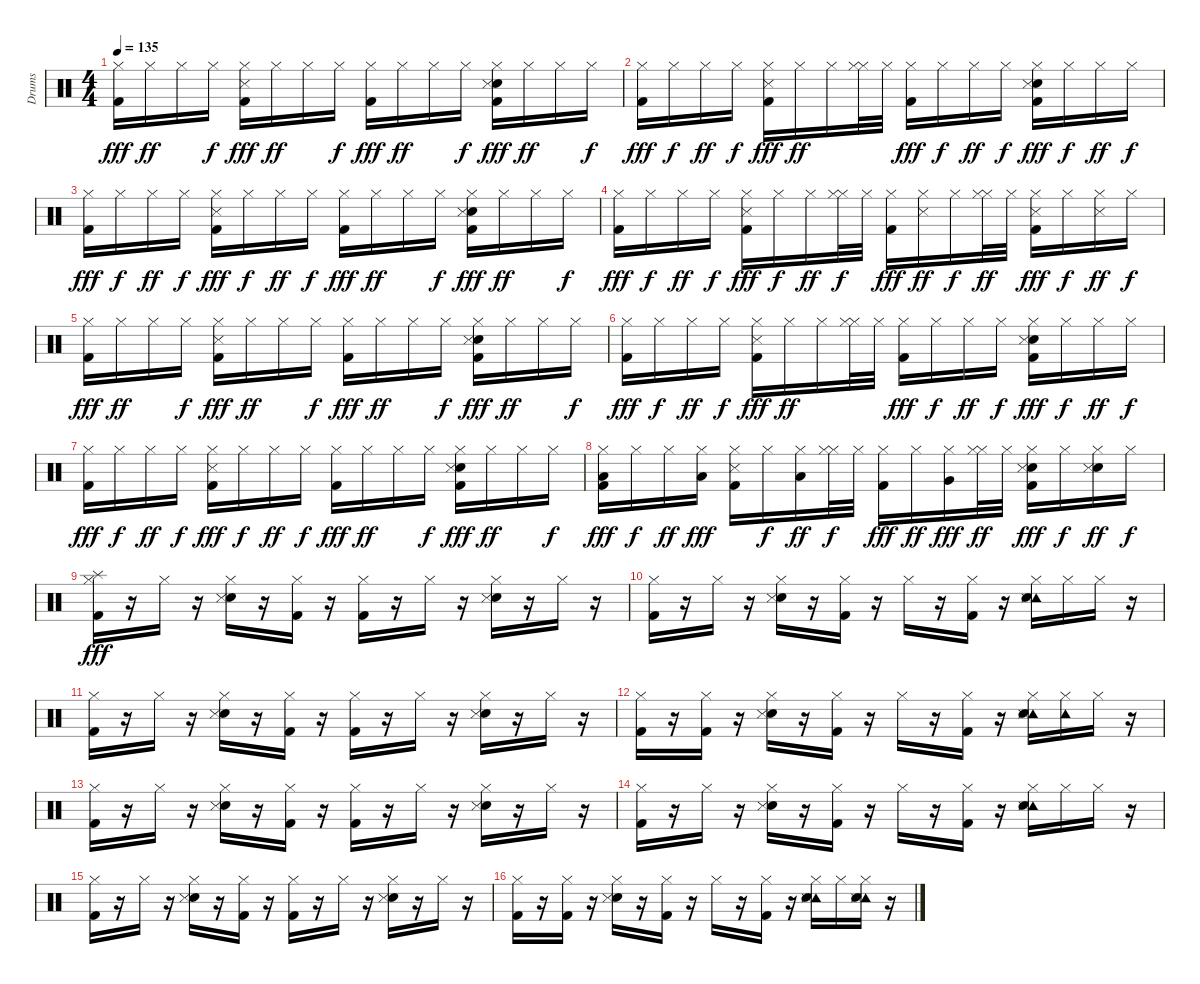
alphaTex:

\track ("Drums" "Drums") {instrument percussion}
\staff {score}
\articulation defaults
\ts (4 4)
\tempo 135
\clef neutral
\ks c
("Kick (hit) 2" "Hi-Hat (closed)").16{dy fff} "Hi-Hat (closed)".16{dy ff} "Hi-Hat (closed)".16 "Hi-Hat (closed)".16{dy f} ("Snare (side stick) 3" "Kick (hit) 2" "Hi-Hat (closed)").16{dy fff} "Hi-Hat (closed)".16{dy ff} "Hi-Hat (closed)".16 "Hi-Hat (closed)".16{dy f} ("Kick (hit) 2" "Hi-Hat (closed)").16{dy fff} "Hi-Hat (closed)".16{dy ff} "Hi-Hat (closed)".16 "Hi-Hat (closed)".16{dy f} ("Electric Snare (hit)" "Snare (side stick) 3" "Kick (hit) 2" "Hi-Hat (closed)").16{dy fff} "Hi-Hat (closed)".16{dy ff} "Hi-Hat (closed)".16 "Hi-Hat (closed)".16{dy f} |
("Kick (hit) 2" "Hi-Hat (closed)").16{dy fff} "Hi-Hat (closed)".16{dy f} "Hi-Hat (closed)".16{dy ff} "Hi-Hat (closed)".16{dy f} ("Snare (side stick) 3" "Kick (hit) 2" "Hi-Hat (closed)").16{dy fff} "Hi-Hat (closed)".16{dy ff} "Hi-Hat (closed)".16 ("Hi-Hat (closed)" "Hi-Hat (closed)").32 "Hi-Hat (closed)".32 ("Kick (hit) 2" "Hi-Hat (closed)").16{dy fff} "Hi-Hat (closed)".16{dy f} "Hi-Hat (closed)".16{dy ff} "Hi-Hat (closed)".16{dy f} ("Electric Snare (hit)" "Snare (side stick) 3" "Kick (hit) 2" "Hi-Hat (closed)").16{dy fff} "Hi-Hat (closed)".16{dy f} "Hi-Hat (closed)".16{dy ff} "Hi-Hat (closed)".16{dy f} |
("Kick (hit) 2" "Hi-Hat (closed)").16{dy fff} "Hi-Hat (closed)".16{dy f} "Hi-Hat (closed)".16{dy ff} "Hi-Hat (closed)".16{dy f} ("Snare (side stick) 3" "Kick (hit) 2" "Hi-Hat (closed)").16{dy fff} "Hi-Hat (closed)".16{dy f} "Hi-Hat (closed)".16{dy ff} "Hi-Hat (closed)".16{dy f} ("Kick (hit) 2" "Hi-Hat (closed)").16{dy fff} "Hi-Hat (closed)".16{dy ff} "Hi-Hat (closed)".16 "Hi-Hat (closed)".16{dy f} ("Electric Snare (hit)" "Snare (side stick) 3" "Kick (hit) 2" "Hi-Hat (closed)").16{dy fff} "Hi-Hat (closed)".16{dy ff} "Hi-Hat (closed)".16 "Hi-Hat (closed)".16{dy f} |
("Kick (hit) 2" "Hi-Hat (closed)").16{dy fff} "Hi-Hat (closed)".16{dy f} "Hi-Hat (closed)".16{dy ff} "Hi-Hat (closed)".16{dy f} ("Snare (side stick) 3" "Kick (hit) 2" "Hi-Hat (closed)").16{dy fff} "Hi-Hat (closed)".16{dy f} "Hi-Hat (closed)".16{dy ff} ("Hi-Hat (closed)" "Hi-Hat (closed)").32{dy f} "Hi-Hat (closed)".32 ("Kick (hit) 2" "Hi-Hat (closed)").16{dy fff} ("Snare (side stick) 3" "Hi-Hat (closed)").16{dy ff} "Hi-Hat (closed)".16{dy f} ("Hi-Hat (closed)" "Hi-Hat (closed)").32{dy ff} "Hi-Hat (closed)".32 ("Snare (side stick) 3" "Kick (hit) 2" "Hi-Hat (closed)").16{dy fff} "Hi-Hat (closed)".16{dy f} ("Snare (side stick) 3" "Hi-Hat (closed)").16{dy ff} "Hi-Hat (closed)".16{dy f} |
("Kick (hit) 2" "Hi-Hat (closed)").16{dy fff} "Hi-Hat (closed)".16{dy ff} "Hi-Hat (closed)".16 "Hi-Hat (closed)".16{dy f} ("Snare (side stick) 3" "Kick (hit) 2" "Hi-Hat (closed)").16{dy fff} "Hi-Hat (closed)".16{dy ff} "Hi-Hat (closed)".16 "Hi-Hat (closed)".16{dy f} ("Kick (hit) 2" "Hi-Hat (closed)").16{dy fff} "Hi-Hat (closed)".16{dy ff} "Hi-Hat (closed)".16 "Hi-Hat (closed)".16{dy f} ("Electric Snare (hit)" "Snare (side stick) 3" "Kick (hit) 2" "Hi-Hat (closed)").16{dy fff} "Hi-Hat (closed)".16{dy ff} "Hi-Hat (closed)".16 "Hi-Hat (closed)".16{dy f} |
("Kick (hit) 2" "Hi-Hat (closed)").16{dy fff} "Hi-Hat (closed)".16{dy f} "Hi-Hat (closed)".16{dy ff} "Hi-Hat (closed)".16{dy f} ("Snare (side stick) 3" "Kick (hit) 2" "Hi-Hat (closed)").16{dy fff} "Hi-Hat (closed)".16{dy ff} "Hi-Hat (closed)".16 ("Hi-Hat (closed)" "Hi-Hat (closed)").32 "Hi-Hat (closed)".32 ("Kick (hit) 2" "Hi-Hat (closed)").16{dy fff} "Hi-Hat (closed)".16{dy f} "Hi-Hat (closed)".16{dy ff} "Hi-Hat (closed)".16{dy f} ("Electric Snare (hit)" "Snare (side stick) 3" "Kick (hit) 2" "Hi-Hat (closed)").16{dy fff} "Hi-Hat (closed)".16{dy f} "Hi-Hat (closed)".16{dy ff} "Hi-Hat (closed)".16{dy f} |
("Kick (hit) 2" "Hi-Hat (closed)").16{dy fff} "Hi-Hat (closed)".16{dy f} "Hi-Hat (closed)".16{dy ff} "Hi-Hat (closed)".16{dy f} ("Snare (side stick) 3" "Kick (hit) 2" "Hi-Hat (closed)").16{dy fff} "Hi-Hat (closed)".16{dy f} "Hi-Hat (closed)".16{dy ff} "Hi-Hat (closed)".16{dy f} ("Kick (hit) 2" "Hi-Hat (closed)").16{dy fff} "Hi-Hat (closed)".16{dy ff} "Hi-Hat (closed)".16 "Hi-Hat (closed)".16{dy f} ("Electric Snare (hit)" "Snare (side stick) 3" "Kick (hit) 2" "Hi-Hat (closed)").16{dy fff} "Hi-Hat (closed)".16{dy ff} "Hi-Hat (closed)".16 "Hi-Hat (closed)".16{dy f} |
("Low Tom (hit)" "Kick (hit) 2" "Hi-Hat (closed)").16{dy fff} "Hi-Hat (closed)".16{dy f} "Hi-Hat (closed)".16{dy ff} ("Low Tom (hit)" "Hi-Hat (closed)").16{dy fff} ("Snare (side stick) 3" "Kick (hit) 2" "Hi-Hat (closed)").16 "Hi-Hat (closed)".16{dy f} ("Low Tom (hit)" "Hi-Hat (closed)").16{dy ff} ("Hi-Hat (closed)" "Hi-Hat (closed)").32{dy f} "Hi-Hat (closed)".32 ("Kick (hit) 2" "Hi-Hat (closed)").16{dy fff} "Hi-Hat (closed)".16{dy ff} ("Very Low Tom (hit)" "Hi-Hat (closed)").16{dy fff} ("Hi-Hat (closed)" "Hi-Hat (closed)").32{dy ff} "Hi-Hat (closed)".32 ("Electric Snare (hit)" "Snare (side stick) 3" "Kick (hit) 2" "Hi-Hat (closed)").16{dy fff} "Hi-Hat (closed)".16{dy f} ("Electric Snare (hit)" "Snare (side stick) 3" "Hi-Hat (closed)").16{dy ff} "Hi-Hat (closed)".16{dy f} |
("Splash (hit)" "Kick (hit) 2" "Hi-Hat (closed)").16{dy fff} r.16 "Hi-Hat (closed)".16 r.16 ("Electric Snare (hit)" "Snare (side stick) 3" "Hi-Hat (closed)").16 r.16 ("Kick (hit) 2" "Hi-Hat (closed)").16 r.16 ("Kick (hit) 2" "Hi-Hat (closed)").16 r.16 "Hi-Hat (closed)".16 r.16 ("Electric Snare (hit)" "Snare (side stick) 3" "Hi-Hat (closed)").16 r.16 "Hi-Hat (closed)".16 r.16 |
("Kick (hit) 2" "Hi-Hat (closed)").16 r.16 "Hi-Hat (closed)".16 r.16 ("Electric Snare (hit)" "Snare (side stick) 3" "Hi-Hat (closed)").16 r.16 ("Kick (hit) 2" "Hi-Hat (closed)").16 r.16 "Hi-Hat (closed)".16 r.16 ("Kick (hit) 2" "Hi-Hat (closed)").16 r.16 ("Tambourine (hit)" "Electric Snare (hit)" "Snare (side stick) 3" "Hi-Hat (closed)").16 "Hi-Hat (closed)".16 "Hi-Hat (closed)".16 r.16 |
("Kick (hit) 2" "Hi-Hat (closed)").16 r.16 "Hi-Hat (closed)".16 r.16 ("Electric Snare (hit)" "Snare (side stick) 3" "Hi-Hat (closed)").16 r.16 ("Kick (hit) 2" "Hi-Hat (closed)").16 r.16 ("Kick (hit) 2" "Hi-Hat (closed)").16 r.16 "Hi-Hat (closed)".16 r.16 ("Electric Snare (hit)" "Snare (side stick) 3" "Hi-Hat (closed)").16 r.16 "Hi-Hat (closed)".16 r.16 |
("Hi-Hat (closed)" "Kick (hit) 2").16 r.16 ("Kick (hit) 2" "Hi-Hat (closed)").16 r.16 ("Electric Snare (hit)" "Hi-Hat (closed)" "Snare (side stick) 3").16 r.16 ("Hi-Hat (closed)" "Kick (hit) 2").16 r.16 "Hi-Hat (closed)".16 r.16 ("Hi-Hat (closed)" "Kick (hit) 2").16 r.16 ("Tambourine (hit)" "Electric Snare (hit)" "Hi-Hat (closed)" "Snare (side stick) 3").16 ("Tambourine (hit)" "Hi-Hat (closed)").16 "Hi-Hat (closed)".16 r.16 |
("Kick (hit) 2" "Hi-Hat (closed)").16 r.16 "Hi-Hat (closed)".16 r.16 ("Electric Snare (hit)" "Snare (side stick) 3" "Hi-Hat (closed)").16 r.16 ("Kick (hit) 2" "Hi-Hat (closed)").16 r.16 ("Kick (hit) 2" "Hi-Hat (closed)").16 r.16 "Hi-Hat (closed)".16 r.16 ("Electric Snare (hit)" "Snare (side stick) 3" "Hi-Hat (closed)").16 r.16 "Hi-Hat (closed)".16 r.16 |
("Kick (hit) 2" "Hi-Hat (closed)").16 r.16 "Hi-Hat (closed)".16 r.16 ("Electric Snare (hit)" "Snare (side stick) 3" "Hi-Hat (closed)").16 r.16 ("Kick (hit) 2" "Hi-Hat (closed)").16 r.16 "Hi-Hat (closed)".16 r.16 ("Kick (hit) 2" "Hi-Hat (closed)").16 r.16 ("Tambourine (hit)" "Electric Snare (hit)" "Snare (side stick) 3" "Hi-Hat (closed)").16 "Hi-Hat (closed)".16 "Hi-Hat (closed)".16 r.16 |
("Kick (hit) 2" "Hi-Hat (closed)").16 r.16 "Hi-Hat (closed)".16 r.16 ("Electric Snare (hit)" "Snare (side stick) 3" "Hi-Hat (closed)").16 r.16 ("Kick (hit) 2" "Hi-Hat (closed)").16 r.16 ("Kick (hit) 2" "Hi-Hat (closed)").16 r.16 "Hi-Hat (closed)".16 r.16 ("Electric Snare (hit)" "Snare (side stick) 3" "Hi-Hat (closed)").16 r.16 "Hi-Hat (closed)".16 r.16 |
("Hi-Hat (closed)" "Kick (hit) 2").16 r.16 ("Kick (hit) 2" "Hi-Hat (closed)").16 r.16 ("Electric Snare (hit)" "Hi-Hat (closed)" "Snare (side stick) 3").16 r.16 ("Hi-Hat (closed)" "Kick (hit) 2").16 r.16 "Hi-Hat (closed)".16 r.16 ("Hi-Hat (closed)" "Kick (hit) 2").16 r.16 ("Tambourine (hit)" "Electric Snare (hit)" "Hi-Hat (closed)" "Snare (side stick) 3").16 "Hi-Hat (closed)".16 ("Tambourine (hit)" "Snare (side stick) 3" "Electric Snare (hit)" "Hi-Hat (closed)").16 r.16
